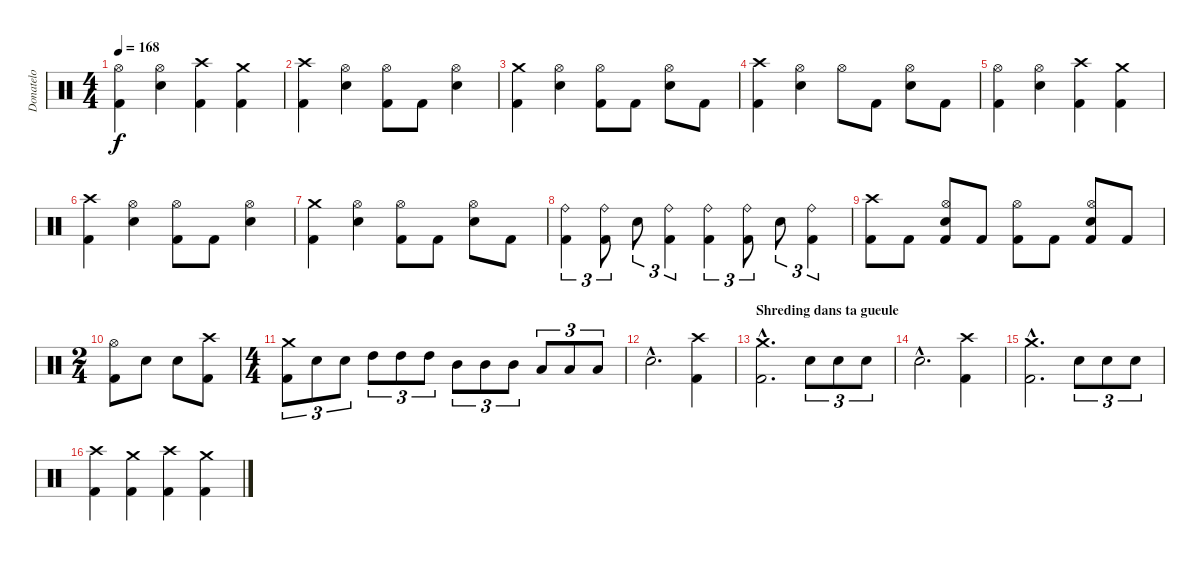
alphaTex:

\track ("Donatelo" "Donatelo") {instrument percussion}
\staff {score}
\articulation defaults
\ts (4 4)
\tempo 168
\clef neutral
\ks c
("Kick (hit) 2" "Hi-Hat (open)").4{dy f} ("Electric Snare (hit)" "Hi-Hat (open)").4 ("Kick (hit) 2" "Crash high (hit)").4 ("Kick (hit) 2" "Crash medium (hit)").4 |
("Kick (hit) 2" "Crash high (hit)").4 ("Electric Snare (hit)" "Hi-Hat (open)").4 ("Kick (hit) 2" "Hi-Hat (open)").8 "Kick (hit) 2".8 ("Electric Snare (hit)" "Hi-Hat (open)").4 |
("Kick (hit) 2" "Crash medium (hit)").4 ("Electric Snare (hit)" "Hi-Hat (open)").4 ("Kick (hit) 2" "Hi-Hat (open)").8 "Kick (hit) 2".8 ("Electric Snare (hit)" "Hi-Hat (open)").8 "Kick (hit) 2".8 |
("Kick (hit) 2" "Crash high (hit)").4 ("Electric Snare (hit)" "Hi-Hat (open)").4 "Hi-Hat (open)".8 "Kick (hit) 2".8 ("Electric Snare (hit)" "Hi-Hat (open)").8 "Kick (hit) 2".8 |
("Kick (hit) 2" "Hi-Hat (open)").4 ("Electric Snare (hit)" "Hi-Hat (open)").4 ("Kick (hit) 2" "Crash high (hit)").4 ("Kick (hit) 2" "Crash medium (hit)").4 |
("Kick (hit) 2" "Crash high (hit)").4 ("Electric Snare (hit)" "Hi-Hat (open)").4 ("Kick (hit) 2" "Hi-Hat (open)").8 "Kick (hit) 2".8 ("Electric Snare (hit)" "Hi-Hat (open)").4 |
("Kick (hit) 2" "Crash medium (hit)").4 ("Electric Snare (hit)" "Hi-Hat (open)").4 ("Kick (hit) 2" "Hi-Hat (open)").8 "Kick (hit) 2".8 ("Electric Snare (hit)" "Hi-Hat (open)").8 "Kick (hit) 2".8 |
("Kick (hit) 2" "Ride (bell)").4{tu (3 2)} ("Kick (hit) 2" "Ride (bell)").8{tu (3 2)} "Electric Snare (hit)".8{tu (3 2)} ("Kick (hit) 2" "Ride (bell)").4{tu (3 2)} ("Kick (hit) 2" "Ride (bell)").4{tu (3 2)} ("Kick (hit) 2" "Ride (bell)").8{tu (3 2)} "Electric Snare (hit)".8{tu (3 2)} ("Kick (hit) 2" "Ride (bell)").4{tu (3 2)} |
("Kick (hit) 2" "Crash high (hit)").8 "Kick (hit) 2".8 ("Kick (hit) 2" "Electric Snare (hit)" "Hi-Hat (open)").8 "Kick (hit) 2".8 ("Kick (hit) 2" "Hi-Hat (open)").8 "Kick (hit) 2".8 ("Kick (hit) 2" "Electric Snare (hit)" "Hi-Hat (open)").8 "Kick (hit) 2".8 |
\ts (2 4)
("Kick (hit) 2" "Hi-Hat (open)").8 "Electric Snare (hit)".8 "Electric Snare (hit)".8 ("Kick (hit) 2" "Crash high (hit)").8 |
\ts (4 4)
("Kick (hit) 2" "Crash medium (hit)").8{tu (3 2)} "Electric Snare (hit)".8{tu (3 2)} "Electric Snare (hit)".8{tu (3 2)} "High Tom (hit)".8{tu (3 2)} "High Tom (hit)".8{tu (3 2)} "High Tom (hit)".8{tu (3 2)} "Mid Tom (hit)".8{tu (3 2)} "Mid Tom (hit)".8{tu (3 2)} "Mid Tom (hit)".8{tu (3 2)} "Low Tom (hit)".8{tu (3 2)} "Low Tom (hit)".8{tu (3 2)} "Low Tom (hit)".8{tu (3 2)} |
"Electric Snare (hit)"{hac}.2{d} ("Kick (hit) 2" "Crash high (hit)").4 |
\section ("" "Shreding dans ta gueule")
("Kick (hit) 2"{hac} "Crash medium (hit)"{hac}).2{d} "Electric Snare (hit)".8{tu (3 2)} "Electric Snare (hit)".8{tu (3 2)} "Electric Snare (hit)".8{tu (3 2)} |
"Electric Snare (hit)"{hac}.2{d} ("Kick (hit) 2" "Crash high (hit)").4 |
("Kick (hit) 2"{hac} "Crash medium (hit)"{hac}).2{d} "Electric Snare (hit)".8{tu (3 2)} "Electric Snare (hit)".8{tu (3 2)} "Electric Snare (hit)".8{tu (3 2)} |
("Kick (hit) 2" "Crash high (hit)").4 ("Kick (hit) 2" "Crash medium (hit)").4 ("Kick (hit) 2" "Crash high (hit)").4 ("Kick (hit) 2" "Crash medium (hit)").4
